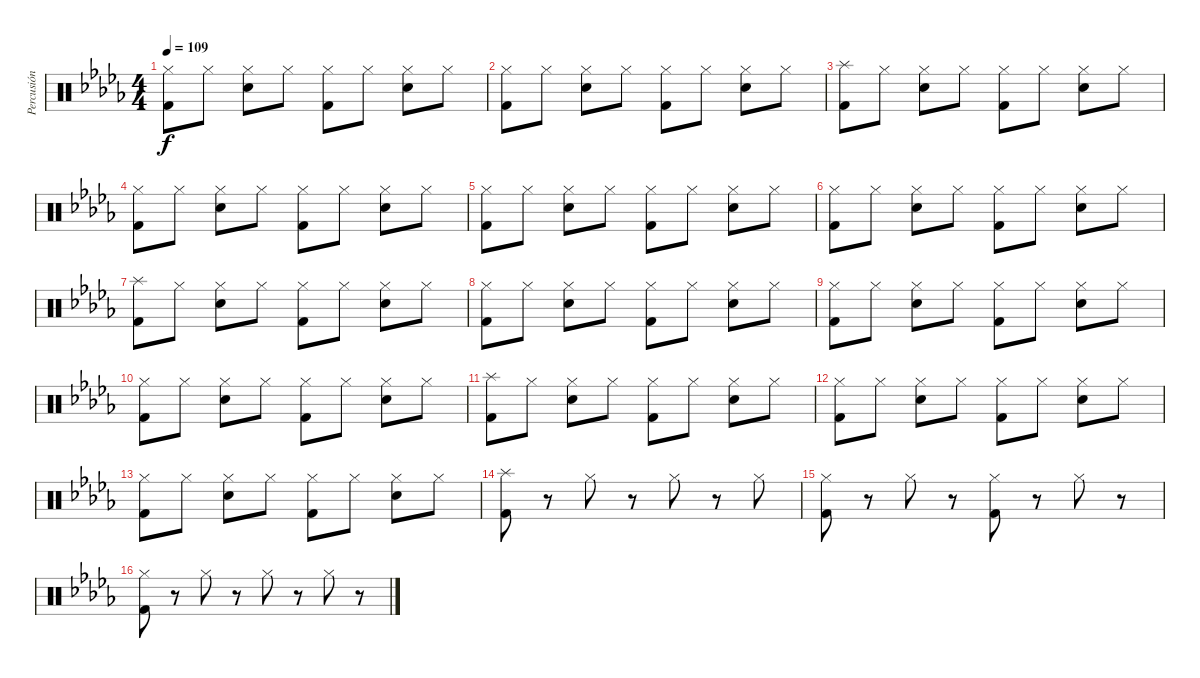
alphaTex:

\track ("Percusión" "Percusión") {instrument percussion}
\staff {score}
\articulation defaults
\ts (4 4)
\tempo 109
\clef neutral
\ks bbminor
("Kick (hit) 2" "Hi-Hat (closed)").8{dy f} "Hi-Hat (closed)".8 ("Snare (hit) 2" "Hi-Hat (closed)").8 "Hi-Hat (closed)".8 ("Kick (hit) 2" "Hi-Hat (closed)").8 "Hi-Hat (closed)".8 ("Snare (hit) 2" "Hi-Hat (closed)").8 "Hi-Hat (closed)".8 |
("Kick (hit) 2" "Hi-Hat (closed)").8 "Hi-Hat (closed)".8 ("Snare (hit) 2" "Hi-Hat (closed)").8 "Hi-Hat (closed)".8 ("Kick (hit) 2" "Hi-Hat (closed)").8 "Hi-Hat (closed)".8 ("Snare (hit) 2" "Hi-Hat (closed)").8 "Hi-Hat (closed)".8 |
("Kick (hit) 2" "Splash (hit)").8 "Hi-Hat (closed)".8 ("Snare (hit) 2" "Hi-Hat (closed)").8 "Hi-Hat (closed)".8 ("Kick (hit) 2" "Hi-Hat (closed)").8 "Hi-Hat (closed)".8 ("Snare (hit) 2" "Hi-Hat (closed)").8 "Hi-Hat (closed)".8 |
("Kick (hit) 2" "Hi-Hat (closed)").8 "Hi-Hat (closed)".8 ("Snare (hit) 2" "Hi-Hat (closed)").8 "Hi-Hat (closed)".8 ("Kick (hit) 2" "Hi-Hat (closed)").8 "Hi-Hat (closed)".8 ("Snare (hit) 2" "Hi-Hat (closed)").8 "Hi-Hat (closed)".8 |
("Kick (hit) 2" "Hi-Hat (closed)").8 "Hi-Hat (closed)".8 ("Snare (hit) 2" "Hi-Hat (closed)").8 "Hi-Hat (closed)".8 ("Kick (hit) 2" "Hi-Hat (closed)").8 "Hi-Hat (closed)".8 ("Snare (hit) 2" "Hi-Hat (closed)").8 "Hi-Hat (closed)".8 |
("Kick (hit) 2" "Hi-Hat (closed)").8 "Hi-Hat (closed)".8 ("Snare (hit) 2" "Hi-Hat (closed)").8 "Hi-Hat (closed)".8 ("Kick (hit) 2" "Hi-Hat (closed)").8 "Hi-Hat (closed)".8 ("Snare (hit) 2" "Hi-Hat (closed)").8 "Hi-Hat (closed)".8 |
("Kick (hit) 2" "Splash (hit)").8 "Hi-Hat (closed)".8 ("Snare (hit) 2" "Hi-Hat (closed)").8 "Hi-Hat (closed)".8 ("Kick (hit) 2" "Hi-Hat (closed)").8 "Hi-Hat (closed)".8 ("Snare (hit) 2" "Hi-Hat (closed)").8 "Hi-Hat (closed)".8 |
("Kick (hit) 2" "Hi-Hat (closed)").8 "Hi-Hat (closed)".8 ("Snare (hit) 2" "Hi-Hat (closed)").8 "Hi-Hat (closed)".8 ("Kick (hit) 2" "Hi-Hat (closed)").8 "Hi-Hat (closed)".8 ("Snare (hit) 2" "Hi-Hat (closed)").8 "Hi-Hat (closed)".8 |
("Kick (hit) 2" "Hi-Hat (closed)").8 "Hi-Hat (closed)".8 ("Snare (hit) 2" "Hi-Hat (closed)").8 "Hi-Hat (closed)".8 ("Kick (hit) 2" "Hi-Hat (closed)").8 "Hi-Hat (closed)".8 ("Snare (hit) 2" "Hi-Hat (closed)").8 "Hi-Hat (closed)".8 |
("Kick (hit) 2" "Hi-Hat (closed)").8 "Hi-Hat (closed)".8 ("Snare (hit) 2" "Hi-Hat (closed)").8 "Hi-Hat (closed)".8 ("Kick (hit) 2" "Hi-Hat (closed)").8 "Hi-Hat (closed)".8 ("Snare (hit) 2" "Hi-Hat (closed)").8 "Hi-Hat (closed)".8 |
("Kick (hit) 2" "Splash (hit)").8 "Hi-Hat (closed)".8 ("Snare (hit) 2" "Hi-Hat (closed)").8 "Hi-Hat (closed)".8 ("Kick (hit) 2" "Hi-Hat (closed)").8 "Hi-Hat (closed)".8 ("Snare (hit) 2" "Hi-Hat (closed)").8 "Hi-Hat (closed)".8 |
("Kick (hit) 2" "Hi-Hat (closed)").8 "Hi-Hat (closed)".8 ("Snare (hit) 2" "Hi-Hat (closed)").8 "Hi-Hat (closed)".8 ("Kick (hit) 2" "Hi-Hat (closed)").8 "Hi-Hat (closed)".8 ("Snare (hit) 2" "Hi-Hat (closed)").8 "Hi-Hat (closed)".8 |
("Kick (hit) 2" "Hi-Hat (closed)").8 "Hi-Hat (closed)".8 ("Snare (hit) 2" "Hi-Hat (closed)").8 "Hi-Hat (closed)".8 ("Kick (hit) 2" "Hi-Hat (closed)").8 "Hi-Hat (closed)".8 ("Snare (hit) 2" "Hi-Hat (closed)").8 "Hi-Hat (closed)".8 |
("Kick (hit) 2" "Splash (hit)").8 r.8 "Hi-Hat (closed)".8 r.8 "Hi-Hat (closed)".8 r.8 "Hi-Hat (closed)".8 |
("Kick (hit) 2" "Hi-Hat (closed)").8 r.8 "Hi-Hat (closed)".8 r.8 ("Kick (hit) 2" "Hi-Hat (closed)").8 r.8 "Hi-Hat (closed)".8 r.8 |
("Kick (hit) 2" "Hi-Hat (closed)").8 r.8 "Hi-Hat (closed)".8 r.8 "Hi-Hat (closed)".8 r.8 "Hi-Hat (closed)".8 r.8
